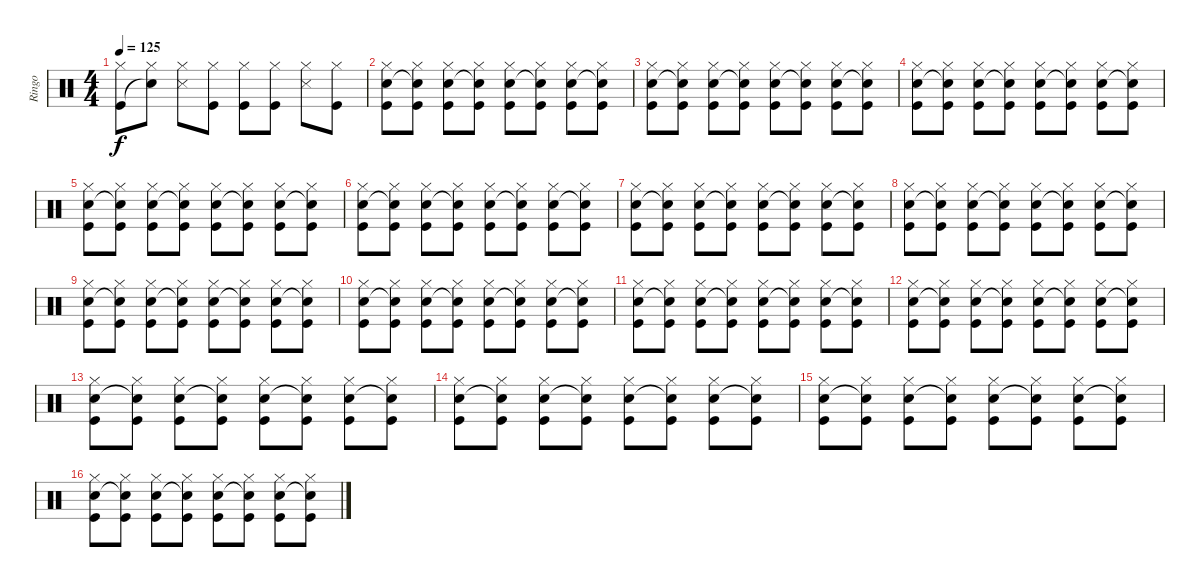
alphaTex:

\track ("Ringo" "Ringo") {instrument percussion}
\staff {score}
\articulation defaults
\ts (4 4)
\tempo 125
\clef neutral
\ks c
("Hi-Hat (closed)" "Kick (hit)").8{dy f} ("Hi-Hat (closed)" "Snare (hit)"{t}).8 ("Hi-Hat (closed)" "Snare (side stick) 3").8 ("Hi-Hat (closed)" "Kick (hit)").8 ("Hi-Hat (closed)" "Kick (hit)").8 ("Hi-Hat (closed)" "Kick (hit)").8 ("Hi-Hat (closed)" "Snare (side stick) 3").8 ("Hi-Hat (closed)" "Kick (hit)").8 |
("Hi-Hat (closed)" "Hand Clap (hit)" "Kick (hit)").8 ("Hi-Hat (closed)" "Snare (hit)"{t} "Kick (hit)").8 ("Hi-Hat (closed)" "Hand Clap (hit)" "Kick (hit)").8 ("Hi-Hat (closed)" "Snare (hit)"{t} "Kick (hit)").8 ("Hi-Hat (closed)" "Hand Clap (hit)" "Kick (hit)").8 ("Hi-Hat (closed)" "Snare (hit)"{t} "Kick (hit)").8 ("Hi-Hat (closed)" "Hand Clap (hit)" "Kick (hit)").8 ("Hi-Hat (closed)" "Snare (hit)"{t} "Kick (hit)").8 |
("Hi-Hat (closed)" "Hand Clap (hit)" "Kick (hit)").8 ("Hi-Hat (closed)" "Snare (hit)"{t} "Kick (hit)").8 ("Hi-Hat (closed)" "Hand Clap (hit)" "Kick (hit)").8 ("Hi-Hat (closed)" "Snare (hit)"{t} "Kick (hit)").8 ("Hi-Hat (closed)" "Hand Clap (hit)" "Kick (hit)").8 ("Hi-Hat (closed)" "Snare (hit)"{t} "Kick (hit)").8 ("Hi-Hat (closed)" "Hand Clap (hit)" "Kick (hit)").8 ("Hi-Hat (closed)" "Snare (hit)"{t} "Kick (hit)").8 |
("Hi-Hat (closed)" "Hand Clap (hit)" "Kick (hit)").8 ("Hi-Hat (closed)" "Snare (hit)"{t} "Kick (hit)").8 ("Hi-Hat (closed)" "Hand Clap (hit)" "Kick (hit)").8 ("Hi-Hat (closed)" "Snare (hit)"{t} "Kick (hit)").8 ("Hi-Hat (closed)" "Hand Clap (hit)" "Kick (hit)").8 ("Hi-Hat (closed)" "Snare (hit)"{t} "Kick (hit)").8 ("Hi-Hat (closed)" "Hand Clap (hit)" "Kick (hit)").8 ("Hi-Hat (closed)" "Snare (hit)"{t} "Kick (hit)").8 |
("Hi-Hat (closed)" "Hand Clap (hit)" "Kick (hit)").8 ("Hi-Hat (closed)" "Snare (hit)"{t} "Kick (hit)").8 ("Hi-Hat (closed)" "Hand Clap (hit)" "Kick (hit)").8 ("Hi-Hat (closed)" "Snare (hit)"{t} "Kick (hit)").8 ("Hi-Hat (closed)" "Hand Clap (hit)" "Kick (hit)").8 ("Hi-Hat (closed)" "Snare (hit)"{t} "Kick (hit)").8 ("Hi-Hat (closed)" "Hand Clap (hit)" "Kick (hit)").8 ("Hi-Hat (closed)" "Snare (hit)"{t} "Kick (hit)").8 |
("Hi-Hat (closed)" "Hand Clap (hit)" "Kick (hit)").8 ("Hi-Hat (closed)" "Snare (hit)"{t} "Kick (hit)").8 ("Hi-Hat (closed)" "Hand Clap (hit)" "Kick (hit)").8 ("Hi-Hat (closed)" "Snare (hit)"{t} "Kick (hit)").8 ("Hi-Hat (closed)" "Hand Clap (hit)" "Kick (hit)").8 ("Hi-Hat (closed)" "Snare (hit)"{t} "Kick (hit)").8 ("Hi-Hat (closed)" "Hand Clap (hit)" "Kick (hit)").8 ("Hi-Hat (closed)" "Snare (hit)"{t} "Kick (hit)").8 |
("Hi-Hat (closed)" "Hand Clap (hit)" "Kick (hit)").8 ("Hi-Hat (closed)" "Snare (hit)"{t} "Kick (hit)").8 ("Hi-Hat (closed)" "Hand Clap (hit)" "Kick (hit)").8 ("Hi-Hat (closed)" "Snare (hit)"{t} "Kick (hit)").8 ("Hi-Hat (closed)" "Hand Clap (hit)" "Kick (hit)").8 ("Hi-Hat (closed)" "Snare (hit)"{t} "Kick (hit)").8 ("Hi-Hat (closed)" "Hand Clap (hit)" "Kick (hit)").8 ("Hi-Hat (closed)" "Snare (hit)"{t} "Kick (hit)").8 |
("Hi-Hat (closed)" "Hand Clap (hit)" "Kick (hit)").8 ("Hi-Hat (closed)" "Snare (hit)"{t} "Kick (hit)").8 ("Hi-Hat (closed)" "Hand Clap (hit)" "Kick (hit)").8 ("Hi-Hat (closed)" "Snare (hit)"{t} "Kick (hit)").8 ("Hi-Hat (closed)" "Hand Clap (hit)" "Kick (hit)").8 ("Hi-Hat (closed)" "Snare (hit)"{t} "Kick (hit)").8 ("Hi-Hat (closed)" "Hand Clap (hit)" "Kick (hit)").8 ("Hi-Hat (closed)" "Snare (hit)"{t} "Kick (hit)").8 |
("Hi-Hat (closed)" "Hand Clap (hit)" "Kick (hit)").8 ("Hi-Hat (closed)" "Snare (hit)"{t} "Kick (hit)").8 ("Hi-Hat (closed)" "Hand Clap (hit)" "Kick (hit)").8 ("Hi-Hat (closed)" "Snare (hit)"{t} "Kick (hit)").8 ("Hi-Hat (closed)" "Hand Clap (hit)" "Kick (hit)").8 ("Hi-Hat (closed)" "Snare (hit)"{t} "Kick (hit)").8 ("Hi-Hat (closed)" "Hand Clap (hit)" "Kick (hit)").8 ("Hi-Hat (closed)" "Snare (hit)"{t} "Kick (hit)").8 |
("Hi-Hat (closed)" "Hand Clap (hit)" "Kick (hit)").8 ("Hi-Hat (closed)" "Snare (hit)"{t} "Kick (hit)").8 ("Hi-Hat (closed)" "Hand Clap (hit)" "Kick (hit)").8 ("Hi-Hat (closed)" "Snare (hit)"{t} "Kick (hit)").8 ("Hi-Hat (closed)" "Hand Clap (hit)" "Kick (hit)").8 ("Hi-Hat (closed)" "Snare (hit)"{t} "Kick (hit)").8 ("Hi-Hat (closed)" "Hand Clap (hit)" "Kick (hit)").8 ("Hi-Hat (closed)" "Snare (hit)"{t} "Kick (hit)").8 |
("Hi-Hat (closed)" "Hand Clap (hit)" "Kick (hit)").8 ("Hi-Hat (closed)" "Snare (hit)"{t} "Kick (hit)").8 ("Hi-Hat (closed)" "Hand Clap (hit)" "Kick (hit)").8 ("Hi-Hat (closed)" "Snare (hit)"{t} "Kick (hit)").8 ("Hi-Hat (closed)" "Hand Clap (hit)" "Kick (hit)").8 ("Hi-Hat (closed)" "Snare (hit)"{t} "Kick (hit)").8 ("Hi-Hat (closed)" "Hand Clap (hit)" "Kick (hit)").8 ("Hi-Hat (closed)" "Snare (hit)"{t} "Kick (hit)").8 |
("Hi-Hat (closed)" "Hand Clap (hit)" "Kick (hit)").8 ("Hi-Hat (closed)" "Snare (hit)"{t} "Kick (hit)").8 ("Hi-Hat (closed)" "Hand Clap (hit)" "Kick (hit)").8 ("Hi-Hat (closed)" "Snare (hit)"{t} "Kick (hit)").8 ("Hi-Hat (closed)" "Hand Clap (hit)" "Kick (hit)").8 ("Hi-Hat (closed)" "Snare (hit)"{t} "Kick (hit)").8 ("Hi-Hat (closed)" "Hand Clap (hit)" "Kick (hit)").8 ("Hi-Hat (closed)" "Snare (hit)"{t} "Kick (hit)").8 |
("Hi-Hat (closed)" "Hand Clap (hit)" "Kick (hit)").8 ("Hi-Hat (closed)" "Snare (hit)"{t} "Kick (hit)").8 ("Hi-Hat (closed)" "Hand Clap (hit)" "Kick (hit)").8 ("Hi-Hat (closed)" "Snare (hit)"{t} "Kick (hit)").8 ("Hi-Hat (closed)" "Hand Clap (hit)" "Kick (hit)").8 ("Hi-Hat (closed)" "Snare (hit)"{t} "Kick (hit)").8 ("Hi-Hat (closed)" "Hand Clap (hit)" "Kick (hit)").8 ("Hi-Hat (closed)" "Snare (hit)"{t} "Kick (hit)").8 |
("Hi-Hat (closed)" "Hand Clap (hit)" "Kick (hit)").8 ("Hi-Hat (closed)" "Snare (hit)"{t} "Kick (hit)").8 ("Hi-Hat (closed)" "Hand Clap (hit)" "Kick (hit)").8 ("Hi-Hat (closed)" "Snare (hit)"{t} "Kick (hit)").8 ("Hi-Hat (closed)" "Hand Clap (hit)" "Kick (hit)").8 ("Hi-Hat (closed)" "Snare (hit)"{t} "Kick (hit)").8 ("Hi-Hat (closed)" "Hand Clap (hit)" "Kick (hit)").8 ("Hi-Hat (closed)" "Snare (hit)"{t} "Kick (hit)").8 |
("Hi-Hat (closed)" "Hand Clap (hit)" "Kick (hit)").8 ("Hi-Hat (closed)" "Snare (hit)"{t} "Kick (hit)").8 ("Hi-Hat (closed)" "Hand Clap (hit)" "Kick (hit)").8 ("Hi-Hat (closed)" "Snare (hit)"{t} "Kick (hit)").8 ("Hi-Hat (closed)" "Hand Clap (hit)" "Kick (hit)").8 ("Hi-Hat (closed)" "Snare (hit)"{t} "Kick (hit)").8 ("Hi-Hat (closed)" "Hand Clap (hit)" "Kick (hit)").8 ("Hi-Hat (closed)" "Snare (hit)"{t} "Kick (hit)").8 |
("Hi-Hat (closed)" "Hand Clap (hit)" "Kick (hit)").8 ("Hi-Hat (closed)" "Snare (hit)"{t} "Kick (hit)").8 ("Hi-Hat (closed)" "Hand Clap (hit)" "Kick (hit)").8 ("Hi-Hat (closed)" "Snare (hit)"{t} "Kick (hit)").8 ("Hi-Hat (closed)" "Hand Clap (hit)" "Kick (hit)").8 ("Hi-Hat (closed)" "Snare (hit)"{t} "Kick (hit)").8 ("Hi-Hat (closed)" "Hand Clap (hit)" "Kick (hit)").8 ("Hi-Hat (closed)" "Snare (hit)"{t} "Kick (hit)").8
